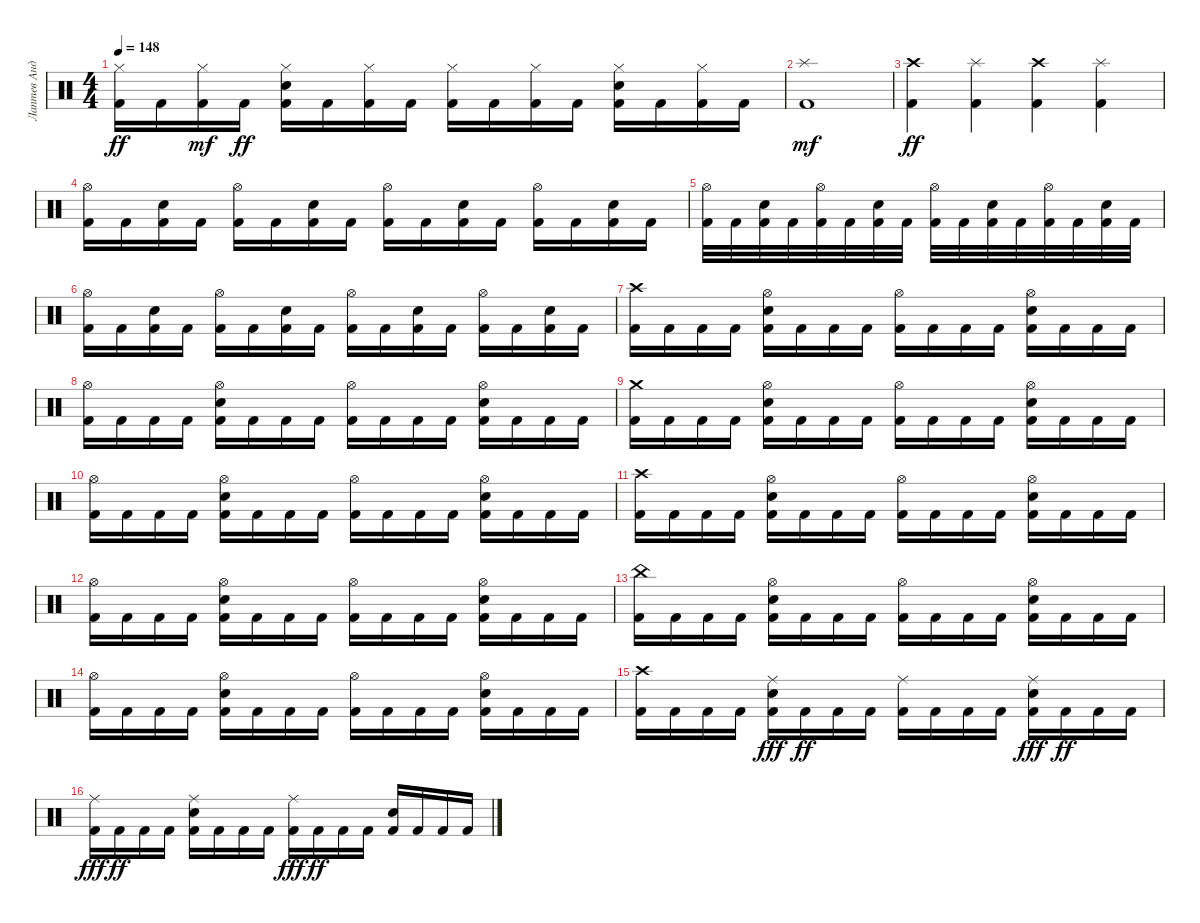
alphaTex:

\track ("Лаптев Андрей" "Лаптев Анд") {instrument percussion}
\staff {score}
\articulation defaults
\ts (4 4)
\tempo 148
\clef neutral
\ks c
("Kick (hit) 2" "Hi-Hat (closed)").16{dy ff} "Kick (hit) 2".16 ("Kick (hit) 2" "Hi-Hat (closed)").16{dy mf} "Kick (hit) 2".16{dy ff} ("Hi-Hat (closed)" "Kick (hit) 2" "Electric Snare (hit)").16 "Kick (hit) 2".16 ("Hi-Hat (closed)" "Kick (hit) 2").16 "Kick (hit) 2".16 ("Hi-Hat (closed)" "Kick (hit) 2").16 "Kick (hit) 2".16 ("Hi-Hat (closed)" "Kick (hit) 2").16 "Kick (hit) 2".16 ("Hi-Hat (closed)" "Electric Snare (hit)" "Kick (hit) 2").16 "Kick (hit) 2".16 ("Hi-Hat (closed)" "Kick (hit) 2").16 "Kick (hit) 2".16 |
("Splash (hit)" "Kick (hit) 2").1{dy mf} |
("Crash high (hit)" "Kick (hit) 2").4{dy ff} ("Splash (hit)" "Kick (hit) 2").4 ("Kick (hit) 2" "Crash high (hit)").4 ("Splash (hit)" "Kick (hit) 2").4 |
("Hi-Hat (open)" "Kick (hit) 2").16 "Kick (hit) 2".16 ("Kick (hit) 2" "Electric Snare (hit)").16 "Kick (hit) 2".16 ("Hi-Hat (open)" "Kick (hit) 2").16 "Kick (hit) 2".16 ("Kick (hit) 2" "Electric Snare (hit)").16 "Kick (hit) 2".16 ("Hi-Hat (open)" "Kick (hit) 2").16 "Kick (hit) 2".16 ("Kick (hit) 2" "Electric Snare (hit)").16 "Kick (hit) 2".16 ("Kick (hit) 2" "Hi-Hat (open)").16 "Kick (hit) 2".16 ("Electric Snare (hit)" "Kick (hit) 2").16 "Kick (hit) 2".16 |
("Hi-Hat (open)" "Kick (hit) 2").32 "Kick (hit) 2".32 ("Kick (hit) 2" "Electric Snare (hit)").32 "Kick (hit) 2".32 ("Hi-Hat (open)" "Kick (hit) 2").32 "Kick (hit) 2".32 ("Electric Snare (hit)" "Kick (hit) 2").32 "Kick (hit) 2".32 ("Hi-Hat (open)" "Kick (hit) 2").32 "Kick (hit) 2".32 ("Electric Snare (hit)" "Kick (hit) 2").32 "Kick (hit) 2".32 ("Hi-Hat (open)" "Kick (hit) 2").32 "Kick (hit) 2".32 ("Kick (hit) 2" "Electric Snare (hit)").32 "Kick (hit) 2".32 |
("Hi-Hat (open)" "Kick (hit) 2").16 "Kick (hit) 2".16 ("Electric Snare (hit)" "Kick (hit) 2").16 "Kick (hit) 2".16 ("Kick (hit) 2" "Hi-Hat (open)").16 "Kick (hit) 2".16 ("Kick (hit) 2" "Electric Snare (hit)").16 "Kick (hit) 2".16 ("Kick (hit) 2" "Hi-Hat (open)").16 "Kick (hit) 2".16 ("Kick (hit) 2" "Electric Snare (hit)").16 "Kick (hit) 2".16 ("Kick (hit) 2" "Hi-Hat (open)").16 "Kick (hit) 2".16 ("Kick (hit) 2" "Electric Snare (hit)").16 "Kick (hit) 2".16 |
("Crash high (hit)" "Kick (hit) 2").16 "Kick (hit) 2".16 "Kick (hit) 2".16 "Kick (hit) 2".16 ("Hi-Hat (open)" "Kick (hit) 2" "Electric Snare (hit)").16 "Kick (hit) 2".16 "Kick (hit) 2".16 "Kick (hit) 2".16 ("Hi-Hat (open)" "Kick (hit) 2").16 "Kick (hit) 2".16 "Kick (hit) 2".16 "Kick (hit) 2".16 ("Hi-Hat (open)" "Electric Snare (hit)" "Kick (hit) 2").16 "Kick (hit) 2".16 "Kick (hit) 2".16 "Kick (hit) 2".16 |
("Hi-Hat (open)" "Kick (hit) 2").16 "Kick (hit) 2".16 "Kick (hit) 2".16 "Kick (hit) 2".16 ("Kick (hit) 2" "Hi-Hat (open)" "Electric Snare (hit)").16 "Kick (hit) 2".16 "Kick (hit) 2".16 "Kick (hit) 2".16 ("Hi-Hat (open)" "Kick (hit) 2").16 "Kick (hit) 2".16 "Kick (hit) 2".16 "Kick (hit) 2".16 ("Kick (hit) 2" "Electric Snare (hit)" "Hi-Hat (open)").16 "Kick (hit) 2".16 "Kick (hit) 2".16 "Kick (hit) 2".16 |
("Crash medium (hit)" "Kick (hit) 2").16 "Kick (hit) 2".16 "Kick (hit) 2".16 "Kick (hit) 2".16 ("Hi-Hat (open)" "Kick (hit) 2" "Electric Snare (hit)").16 "Kick (hit) 2".16 "Kick (hit) 2".16 "Kick (hit) 2".16 ("Hi-Hat (open)" "Kick (hit) 2").16 "Kick (hit) 2".16 "Kick (hit) 2".16 "Kick (hit) 2".16 ("Hi-Hat (open)" "Electric Snare (hit)" "Kick (hit) 2").16 "Kick (hit) 2".16 "Kick (hit) 2".16 "Kick (hit) 2".16 |
("Hi-Hat (open)" "Kick (hit) 2").16 "Kick (hit) 2".16 "Kick (hit) 2".16 "Kick (hit) 2".16 ("Kick (hit) 2" "Hi-Hat (open)" "Electric Snare (hit)").16 "Kick (hit) 2".16 "Kick (hit) 2".16 "Kick (hit) 2".16 ("Hi-Hat (open)" "Kick (hit) 2").16 "Kick (hit) 2".16 "Kick (hit) 2".16 "Kick (hit) 2".16 ("Kick (hit) 2" "Electric Snare (hit)" "Hi-Hat (open)").16 "Kick (hit) 2".16 "Kick (hit) 2".16 "Kick (hit) 2".16 |
("Crash high (hit)" "Kick (hit) 2").16 "Kick (hit) 2".16 "Kick (hit) 2".16 "Kick (hit) 2".16 ("Hi-Hat (open)" "Kick (hit) 2" "Electric Snare (hit)").16 "Kick (hit) 2".16 "Kick (hit) 2".16 "Kick (hit) 2".16 ("Hi-Hat (open)" "Kick (hit) 2").16 "Kick (hit) 2".16 "Kick (hit) 2".16 "Kick (hit) 2".16 ("Hi-Hat (open)" "Electric Snare (hit)" "Kick (hit) 2").16 "Kick (hit) 2".16 "Kick (hit) 2".16 "Kick (hit) 2".16 |
("Hi-Hat (open)" "Kick (hit) 2").16 "Kick (hit) 2".16 "Kick (hit) 2".16 "Kick (hit) 2".16 ("Kick (hit) 2" "Hi-Hat (open)" "Electric Snare (hit)").16 "Kick (hit) 2".16 "Kick (hit) 2".16 "Kick (hit) 2".16 ("Hi-Hat (open)" "Kick (hit) 2").16 "Kick (hit) 2".16 "Kick (hit) 2".16 "Kick (hit) 2".16 ("Kick (hit) 2" "Electric Snare (hit)" "Hi-Hat (open)").16 "Kick (hit) 2".16 "Kick (hit) 2".16 "Kick (hit) 2".16 |
("China (hit)" "Kick (hit) 2").16 "Kick (hit) 2".16 "Kick (hit) 2".16 "Kick (hit) 2".16 ("Hi-Hat (open)" "Kick (hit) 2" "Electric Snare (hit)").16 "Kick (hit) 2".16 "Kick (hit) 2".16 "Kick (hit) 2".16 ("Hi-Hat (open)" "Kick (hit) 2").16 "Kick (hit) 2".16 "Kick (hit) 2".16 "Kick (hit) 2".16 ("Hi-Hat (open)" "Electric Snare (hit)" "Kick (hit) 2").16 "Kick (hit) 2".16 "Kick (hit) 2".16 "Kick (hit) 2".16 |
("Hi-Hat (open)" "Kick (hit) 2").16 "Kick (hit) 2".16 "Kick (hit) 2".16 "Kick (hit) 2".16 ("Kick (hit) 2" "Hi-Hat (open)" "Electric Snare (hit)").16 "Kick (hit) 2".16 "Kick (hit) 2".16 "Kick (hit) 2".16 ("Hi-Hat (open)" "Kick (hit) 2").16 "Kick (hit) 2".16 "Kick (hit) 2".16 "Kick (hit) 2".16 ("Kick (hit) 2" "Electric Snare (hit)" "Hi-Hat (open)").16 "Kick (hit) 2".16 "Kick (hit) 2".16 "Kick (hit) 2".16 |
("Crash high (hit)" "Kick (hit) 2").16 "Kick (hit) 2".16 "Kick (hit) 2".16 "Kick (hit) 2".16 ("Kick (hit) 2" "Electric Snare (hit)" "Ride (middle)").16{dy fff} "Kick (hit) 2".16{dy ff} "Kick (hit) 2".16 "Kick (hit) 2".16 ("Ride (middle)" "Kick (hit) 2").16 "Kick (hit) 2".16 "Kick (hit) 2".16 "Kick (hit) 2".16 ("Kick (hit) 2" "Electric Snare (hit)" "Ride (middle)").16{dy fff} "Kick (hit) 2".16{dy ff} "Kick (hit) 2".16 "Kick (hit) 2".16 |
("Kick (hit) 2" "Ride (middle)").16{dy fff} "Kick (hit) 2".16{dy ff} "Kick (hit) 2".16 "Kick (hit) 2".16 ("Kick (hit) 2" "Electric Snare (hit)" "Ride (middle)").16 "Kick (hit) 2".16 "Kick (hit) 2".16 "Kick (hit) 2".16 ("Kick (hit) 2" "Ride (middle)").16{dy fff} "Kick (hit) 2".16{dy ff} "Kick (hit) 2".16 "Kick (hit) 2".16 ("Electric Snare (hit)" "Kick (hit) 2").16 "Kick (hit) 2".16 "Kick (hit) 2".16 "Kick (hit) 2".16
